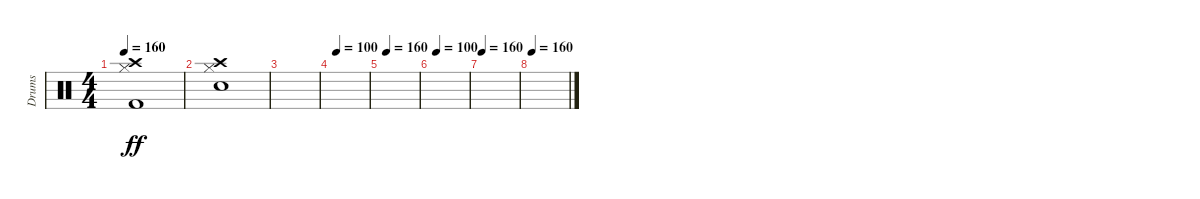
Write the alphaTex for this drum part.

\track ("Drums" "Drums") {instrument percussion}
\staff {score}
\articulation defaults
\ts (4 4)
\tempo 160
\clef neutral
\ks c
("Hi-Hat (closed)" "Crash high (hit)" "Kick (hit) 2").1{dy ff} |
("Hi-Hat (closed)" "Crash high (hit)" "Snare (hit) 2").1 |
|
\tempo (100 0.125)
|
\tempo (160 0.125)
|
\tempo (100 0.125)
|
\tempo 160
|
\tempo 160
